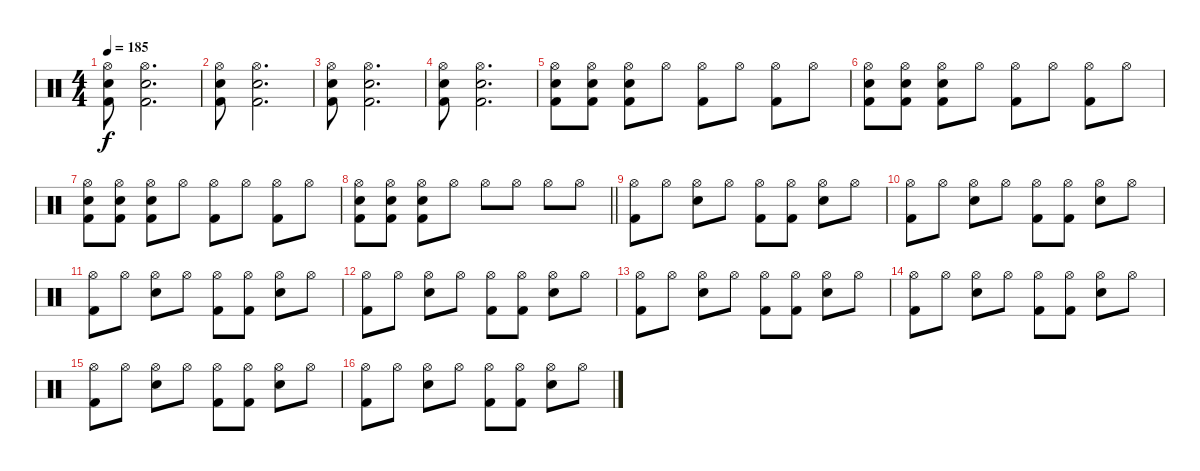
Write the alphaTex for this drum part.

\track "" {instrument percussion}
\staff {score}
\articulation defaults
\ts (4 4)
\tempo 185
\clef neutral
\ks c
("Kick (hit) 2" "Snare (hit) 2" "Hi-Hat (open)").8{dy f} ("Kick (hit) 2" "Snare (hit) 2" "Hi-Hat (open)").2{d} |
("Kick (hit) 2" "Snare (hit) 2" "Hi-Hat (open)").8 ("Kick (hit) 2" "Snare (hit) 2" "Hi-Hat (open)").2{d} |
("Kick (hit) 2" "Snare (hit) 2" "Hi-Hat (open)").8 ("Kick (hit) 2" "Snare (hit) 2" "Hi-Hat (open)").2{d} |
("Kick (hit) 2" "Snare (hit) 2" "Hi-Hat (open)").8 ("Kick (hit) 2" "Snare (hit) 2" "Hi-Hat (open)").2{d} |
("Kick (hit) 2" "Snare (hit) 2" "Hi-Hat (open)").8 ("Kick (hit) 2" "Snare (hit) 2" "Hi-Hat (open)").8 ("Kick (hit) 2" "Snare (hit) 2" "Hi-Hat (open)").8 "Hi-Hat (open)".8 ("Kick (hit) 2" "Hi-Hat (open)").8 "Hi-Hat (open)".8 ("Kick (hit) 2" "Hi-Hat (open)").8 "Hi-Hat (open)".8 |
("Kick (hit) 2" "Snare (hit) 2" "Hi-Hat (open)").8 ("Kick (hit) 2" "Snare (hit) 2" "Hi-Hat (open)").8 ("Kick (hit) 2" "Snare (hit) 2" "Hi-Hat (open)").8 "Hi-Hat (open)".8 ("Kick (hit) 2" "Hi-Hat (open)").8 "Hi-Hat (open)".8 ("Kick (hit) 2" "Hi-Hat (open)").8 "Hi-Hat (open)".8 |
("Kick (hit) 2" "Snare (hit) 2" "Hi-Hat (open)").8 ("Kick (hit) 2" "Snare (hit) 2" "Hi-Hat (open)").8 ("Kick (hit) 2" "Snare (hit) 2" "Hi-Hat (open)").8 "Hi-Hat (open)".8 ("Kick (hit) 2" "Hi-Hat (open)").8 "Hi-Hat (open)".8 ("Kick (hit) 2" "Hi-Hat (open)").8 "Hi-Hat (open)".8 |
\barLineRight lightlight
("Kick (hit) 2" "Snare (hit) 2" "Hi-Hat (open)").8 ("Kick (hit) 2" "Snare (hit) 2" "Hi-Hat (open)").8 ("Kick (hit) 2" "Snare (hit) 2" "Hi-Hat (open)").8 "Hi-Hat (open)".8 "Hi-Hat (open)".8 "Hi-Hat (open)".8 "Hi-Hat (open)".8 "Hi-Hat (open)".8 |
("Kick (hit) 2" "Hi-Hat (open)").8 "Hi-Hat (open)".8 ("Snare (hit) 2" "Hi-Hat (open)").8 "Hi-Hat (open)".8 ("Kick (hit) 2" "Hi-Hat (open)").8 ("Kick (hit) 2" "Hi-Hat (open)").8 ("Snare (hit) 2" "Hi-Hat (open)").8 "Hi-Hat (open)".8 |
("Kick (hit) 2" "Hi-Hat (open)").8 "Hi-Hat (open)".8 ("Snare (hit) 2" "Hi-Hat (open)").8 "Hi-Hat (open)".8 ("Kick (hit) 2" "Hi-Hat (open)").8 ("Kick (hit) 2" "Hi-Hat (open)").8 ("Snare (hit) 2" "Hi-Hat (open)").8 "Hi-Hat (open)".8 |
("Kick (hit) 2" "Hi-Hat (open)").8 "Hi-Hat (open)".8 ("Snare (hit) 2" "Hi-Hat (open)").8 "Hi-Hat (open)".8 ("Kick (hit) 2" "Hi-Hat (open)").8 ("Kick (hit) 2" "Hi-Hat (open)").8 ("Snare (hit) 2" "Hi-Hat (open)").8 "Hi-Hat (open)".8 |
("Kick (hit) 2" "Hi-Hat (open)").8 "Hi-Hat (open)".8 ("Snare (hit) 2" "Hi-Hat (open)").8 "Hi-Hat (open)".8 ("Kick (hit) 2" "Hi-Hat (open)").8 ("Kick (hit) 2" "Hi-Hat (open)").8 ("Snare (hit) 2" "Hi-Hat (open)").8 "Hi-Hat (open)".8 |
("Kick (hit) 2" "Hi-Hat (open)").8 "Hi-Hat (open)".8 ("Snare (hit) 2" "Hi-Hat (open)").8 "Hi-Hat (open)".8 ("Kick (hit) 2" "Hi-Hat (open)").8 ("Kick (hit) 2" "Hi-Hat (open)").8 ("Snare (hit) 2" "Hi-Hat (open)").8 "Hi-Hat (open)".8 |
("Kick (hit) 2" "Hi-Hat (open)").8 "Hi-Hat (open)".8 ("Snare (hit) 2" "Hi-Hat (open)").8 "Hi-Hat (open)".8 ("Kick (hit) 2" "Hi-Hat (open)").8 ("Kick (hit) 2" "Hi-Hat (open)").8 ("Snare (hit) 2" "Hi-Hat (open)").8 "Hi-Hat (open)".8 |
("Kick (hit) 2" "Hi-Hat (open)").8 "Hi-Hat (open)".8 ("Snare (hit) 2" "Hi-Hat (open)").8 "Hi-Hat (open)".8 ("Kick (hit) 2" "Hi-Hat (open)").8 ("Kick (hit) 2" "Hi-Hat (open)").8 ("Snare (hit) 2" "Hi-Hat (open)").8 "Hi-Hat (open)".8 |
("Kick (hit) 2" "Hi-Hat (open)").8 "Hi-Hat (open)".8 ("Snare (hit) 2" "Hi-Hat (open)").8 "Hi-Hat (open)".8 ("Kick (hit) 2" "Hi-Hat (open)").8 ("Kick (hit) 2" "Hi-Hat (open)").8 ("Snare (hit) 2" "Hi-Hat (open)").8 "Hi-Hat (open)".8
